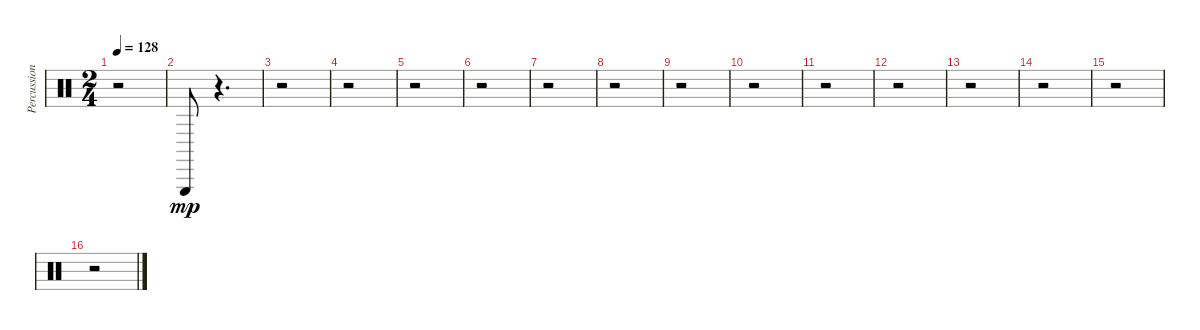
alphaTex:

\track ("Percussion" "Percussion") {instrument percussion}
\staff {score}
\articulation defaults
\ts (2 4)
\tempo 128
\clef neutral
\ks c
r.2{dy mp} |
"Triangle (hit)".8 r.4{d} |
r.2 |
r.2 |
r.2 |
r.2 |
r.2 |
r.2 |
r.2 |
r.2 |
r.2 |
r.2 |
r.2 |
r.2 |
r.2 |
r.2
